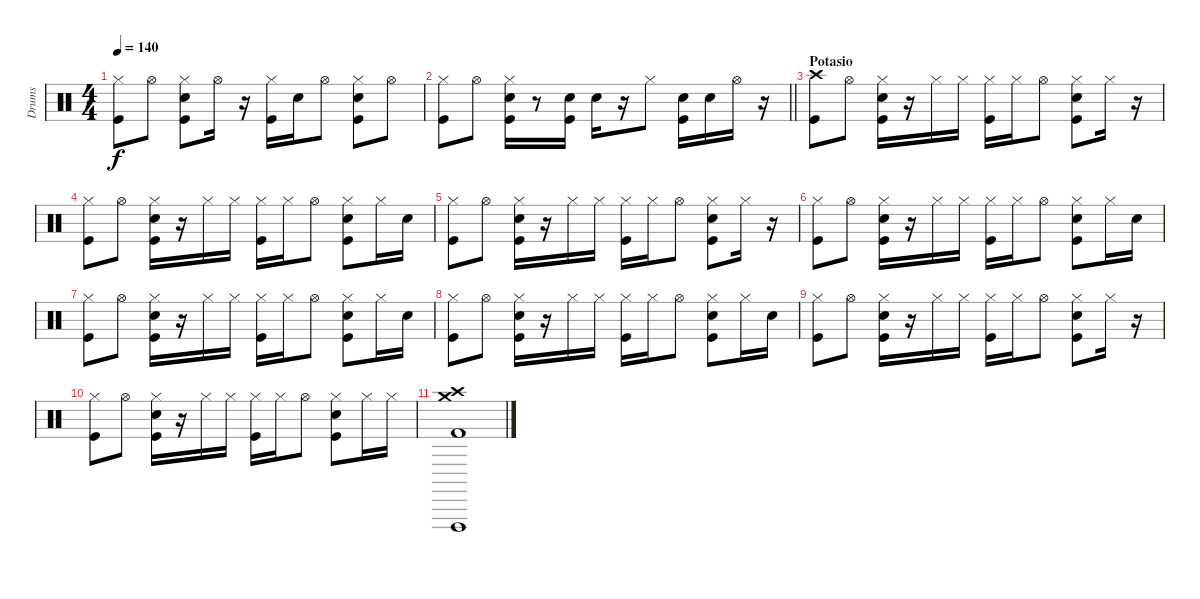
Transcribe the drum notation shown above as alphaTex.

\track ("Drums" "Drums") {instrument percussion}
\staff {score}
\articulation defaults
\ts (4 4)
\tempo 140
\clef neutral
\ks c
("Hi-Hat (closed)" "Kick (hit)").8{dy f} "Hi-Hat (open)".8 ("Hi-Hat (closed)" "Snare (hit) 2" "Kick (hit)").8 "Hi-Hat (open)".16 r.16 ("Hi-Hat (closed)" "Kick (hit)").16 "Snare (hit) 2".16 "Hi-Hat (open)".8 ("Hi-Hat (closed)" "Snare (hit) 2" "Kick (hit)").8 "Hi-Hat (open)".8 |
\barLineRight lightlight
("Hi-Hat (closed)" "Kick (hit)").8 "Hi-Hat (open)".8 ("Hi-Hat (closed)" "Snare (hit) 2" "Kick (hit)").16 r.8 ("Snare (hit) 2" "Kick (hit)").16 "Snare (hit) 2".16 r.16 "Hi-Hat (closed)".8 ("Snare (hit) 2" "Kick (hit)").16 "Snare (hit) 2".16 "Hi-Hat (open)".16 r.16 |
\section ("" "Potasio")
("Crash high (hit)" "Kick (hit)").8 "Hi-Hat (open)".8 ("Hi-Hat (closed)" "Snare (hit) 2" "Kick (hit)").16 r.16 "Hi-Hat (closed)".16 "Hi-Hat (closed)".16 ("Hi-Hat (closed)" "Kick (hit)").16 "Hi-Hat (closed)".16 "Hi-Hat (open)".8 ("Hi-Hat (closed)" "Snare (hit) 2" "Kick (hit)").8 "Hi-Hat (closed)".16 r.16 |
("Hi-Hat (closed)" "Kick (hit)").8 "Hi-Hat (open)".8 ("Hi-Hat (closed)" "Snare (hit) 2" "Kick (hit)").16 r.16 "Hi-Hat (closed)".16 "Hi-Hat (closed)".16 ("Hi-Hat (closed)" "Kick (hit)").16 "Hi-Hat (closed)".16 "Hi-Hat (open)".8 ("Hi-Hat (closed)" "Snare (hit) 2" "Kick (hit)").8 "Hi-Hat (closed)".16 "Snare (hit) 2".16 |
("Hi-Hat (closed)" "Kick (hit)").8 "Hi-Hat (open)".8 ("Hi-Hat (closed)" "Snare (hit) 2" "Kick (hit)").16 r.16 "Hi-Hat (closed)".16 "Hi-Hat (closed)".16 ("Hi-Hat (closed)" "Kick (hit)").16 "Hi-Hat (closed)".16 "Hi-Hat (open)".8 ("Hi-Hat (closed)" "Snare (hit) 2" "Kick (hit)").8 "Hi-Hat (closed)".16 r.16 |
("Hi-Hat (closed)" "Kick (hit)").8 "Hi-Hat (open)".8 ("Hi-Hat (closed)" "Snare (hit) 2" "Kick (hit)").16 r.16 "Hi-Hat (closed)".16 "Hi-Hat (closed)".16 ("Hi-Hat (closed)" "Kick (hit)").16 "Hi-Hat (closed)".16 "Hi-Hat (open)".8 ("Hi-Hat (closed)" "Snare (hit) 2" "Kick (hit)").8 "Hi-Hat (closed)".16 "Snare (hit) 2".16 |
("Hi-Hat (closed)" "Kick (hit)").8 "Hi-Hat (open)".8 ("Hi-Hat (closed)" "Snare (hit) 2" "Kick (hit)").16 r.16 "Hi-Hat (closed)".16 "Hi-Hat (closed)".16 ("Hi-Hat (closed)" "Kick (hit)").16 "Hi-Hat (closed)".16 "Hi-Hat (open)".8 ("Hi-Hat (closed)" "Snare (hit) 2" "Kick (hit)").8 "Hi-Hat (closed)".16 "Snare (hit) 2".16 |
("Hi-Hat (closed)" "Kick (hit)").8 "Hi-Hat (open)".8 ("Hi-Hat (closed)" "Snare (hit) 2" "Kick (hit)").16 r.16 "Hi-Hat (closed)".16 "Hi-Hat (closed)".16 ("Hi-Hat (closed)" "Kick (hit)").16 "Hi-Hat (closed)".16 "Hi-Hat (open)".8 ("Hi-Hat (closed)" "Snare (hit) 2" "Kick (hit)").8 "Hi-Hat (closed)".16 "Snare (hit) 2".16 |
("Hi-Hat (closed)" "Kick (hit)").8 "Hi-Hat (open)".8 ("Hi-Hat (closed)" "Snare (hit) 2" "Kick (hit)").16 r.16 "Hi-Hat (closed)".16 "Hi-Hat (closed)".16 ("Hi-Hat (closed)" "Kick (hit)").16 "Hi-Hat (closed)".16 "Hi-Hat (open)".8 ("Hi-Hat (closed)" "Snare (hit) 2" "Kick (hit)").8 "Hi-Hat (closed)".16 r.16 |
("Hi-Hat (closed)" "Kick (hit)").8 "Hi-Hat (open)".8 ("Hi-Hat (closed)" "Snare (hit) 2" "Kick (hit)").16 r.16 "Hi-Hat (closed)".16 "Hi-Hat (closed)".16 ("Hi-Hat (closed)" "Kick (hit)").16 "Hi-Hat (closed)".16 "Hi-Hat (open)".8 ("Hi-Hat (closed)" "Snare (hit) 2" "Kick (hit)").8 "Hi-Hat (closed)".16 "Hi-Hat (closed)".16 |
("Crash medium (hit)" "Vibraslap (hit)" "Crash high (hit)" "Kick (hit) 2").1
